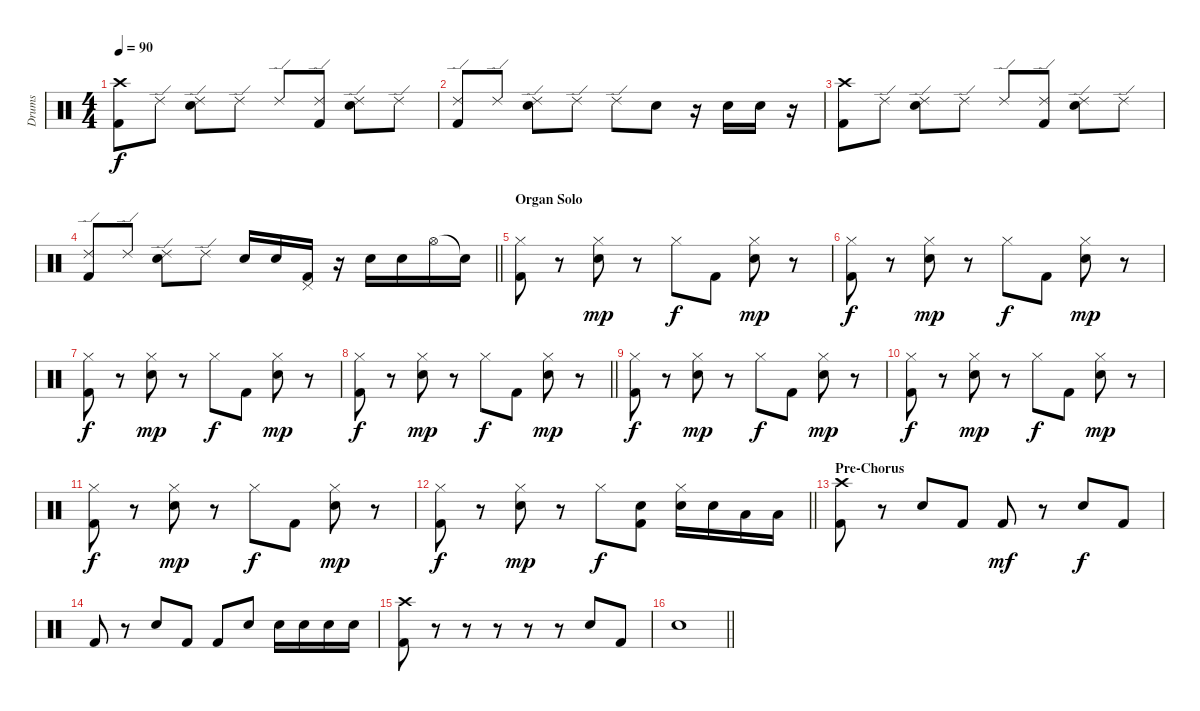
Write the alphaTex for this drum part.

\track ("Drums" "Drums") {instrument percussion}
\staff {score}
\articulation defaults
\ts (4 4)
\tempo 90
\clef neutral
\ks c
("Crash high (hit)" "Kick (hit) 2").8{dy f} "Ride (edge) 2".8 ("Ride (edge) 2" "Electric Snare (hit)").8 "Ride (edge) 2".8 "Ride (edge) 2".8 ("Ride (edge) 2" "Kick (hit) 2").8 ("Ride (edge) 2" "Electric Snare (hit)").8 "Ride (edge) 2".8 |
("Ride (edge) 2" "Kick (hit) 2").8 "Ride (edge) 2".8 ("Ride (edge) 2" "Electric Snare (hit)").8 "Ride (edge) 2".8 "Ride (edge) 2".8 "Electric Snare (hit)".8 r.16 "Electric Snare (hit)".16 "Electric Snare (hit)".16 r.16 |
("Crash high (hit)" "Kick (hit) 2").8 "Ride (edge) 2".8 ("Ride (edge) 2" "Electric Snare (hit)").8 "Ride (edge) 2".8 "Ride (edge) 2".8 ("Ride (edge) 2" "Kick (hit) 2").8 ("Ride (edge) 2" "Electric Snare (hit)").8 "Ride (edge) 2".8 |
\barLineRight lightlight
("Ride (edge) 2" "Kick (hit) 2").8 "Ride (edge) 2".8 ("Ride (edge) 2" "Electric Snare (hit)").8 "Ride (edge) 2".8 "Electric Snare (hit)".16 "Electric Snare (hit)".16 ("Pedal Hi-Hat (hit)" "Kick (hit) 2").16 r.16 "Electric Snare (hit)".16 "Electric Snare (hit)".16 "Hi-Hat (open)".16 "Snare (hit)"{t}.16 |
\section ("" "Organ Solo")
("Hi-Hat (closed)" "Kick (hit) 2").8 r.8 ("Hi-Hat (closed)" "Electric Snare (hit)").8{dy mp} r.8 "Hi-Hat (closed)".8{dy f} "Kick (hit) 2".8 ("Hi-Hat (closed)" "Electric Snare (hit)").8{dy mp} r.8 |
("Hi-Hat (closed)" "Kick (hit) 2").8{dy f} r.8 ("Hi-Hat (closed)" "Electric Snare (hit)").8{dy mp} r.8 "Hi-Hat (closed)".8{dy f} "Kick (hit) 2".8 ("Hi-Hat (closed)" "Electric Snare (hit)").8{dy mp} r.8 |
("Hi-Hat (closed)" "Kick (hit) 2").8{dy f} r.8 ("Hi-Hat (closed)" "Electric Snare (hit)").8{dy mp} r.8 "Hi-Hat (closed)".8{dy f} "Kick (hit) 2".8 ("Hi-Hat (closed)" "Electric Snare (hit)").8{dy mp} r.8 |
\barLineRight lightlight
("Hi-Hat (closed)" "Kick (hit) 2").8{dy f} r.8 ("Hi-Hat (closed)" "Electric Snare (hit)").8{dy mp} r.8 "Hi-Hat (closed)".8{dy f} "Kick (hit) 2".8 ("Hi-Hat (closed)" "Electric Snare (hit)").8{dy mp} r.8 |
("Hi-Hat (closed)" "Kick (hit) 2").8{dy f} r.8 ("Hi-Hat (closed)" "Electric Snare (hit)").8{dy mp} r.8 "Hi-Hat (closed)".8{dy f} "Kick (hit) 2".8 ("Hi-Hat (closed)" "Electric Snare (hit)").8{dy mp} r.8 |
("Hi-Hat (closed)" "Kick (hit) 2").8{dy f} r.8 ("Hi-Hat (closed)" "Electric Snare (hit)").8{dy mp} r.8 "Hi-Hat (closed)".8{dy f} "Kick (hit) 2".8 ("Hi-Hat (closed)" "Electric Snare (hit)").8{dy mp} r.8 |
("Hi-Hat (closed)" "Kick (hit) 2").8{dy f} r.8 ("Hi-Hat (closed)" "Electric Snare (hit)").8{dy mp} r.8 "Hi-Hat (closed)".8{dy f} "Kick (hit) 2".8 ("Hi-Hat (closed)" "Electric Snare (hit)").8{dy mp} r.8 |
\barLineRight lightlight
("Hi-Hat (closed)" "Kick (hit) 2").8{dy f} r.8 ("Hi-Hat (closed)" "Electric Snare (hit)").8{dy mp} r.8 "Hi-Hat (closed)".8{dy f} ("Electric Snare (hit)" "Kick (hit) 2").8 ("Hi-Hat (closed)" "Electric Snare (hit)").16 "Electric Snare (hit)".16 "Low Tom (hit)".16 "Low Tom (hit)".16 |
\section ("" "Pre-Chorus")
("Crash high (hit)" "Kick (hit) 2").8 r.8 "Electric Snare (hit)".8 "Kick (hit) 2".8 "Kick (hit) 2".8{dy mf} r.8 "Electric Snare (hit)".8{dy f} "Kick (hit) 2".8 |
"Kick (hit) 2".8 r.8 "Electric Snare (hit)".8 "Kick (hit) 2".8 "Kick (hit) 2".8 "Electric Snare (hit)".8 "Electric Snare (hit)".16 "Electric Snare (hit)".16 "Electric Snare (hit)".16 "Electric Snare (hit)".16 |
("Crash high (hit)" "Kick (hit) 2").8 r.8 r.8 r.8 r.8 r.8 "Electric Snare (hit)".8 "Kick (hit) 2".8 |
\barLineRight lightlight "Electric Snare (hit)".1
